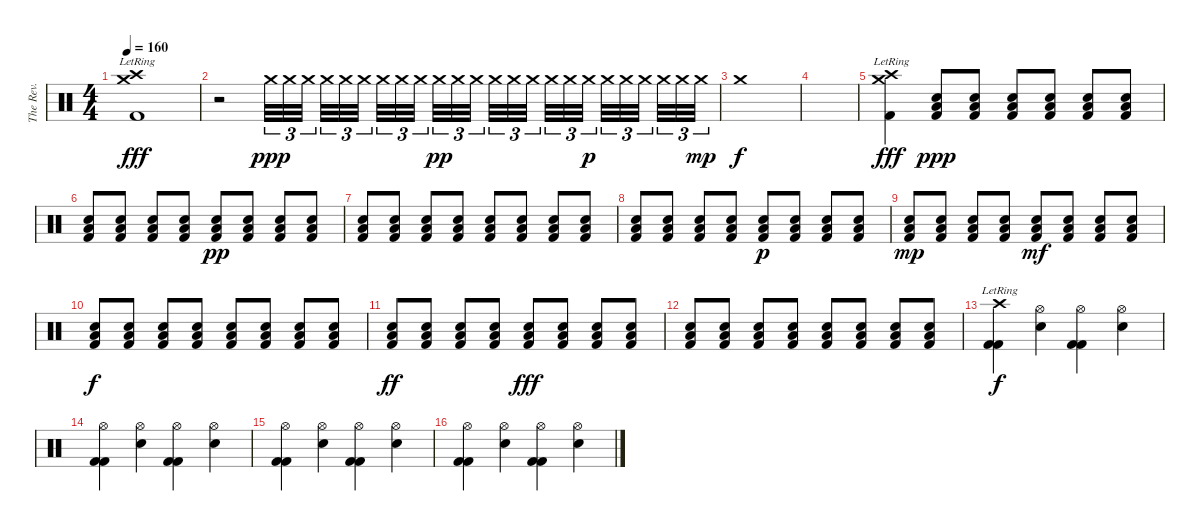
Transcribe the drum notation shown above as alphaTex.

\track ("The Rev." "The Rev.") {instrument percussion}
\staff {score}
\articulation defaults
\ts (4 4)
\tempo 160
\clef neutral
\ks c
("Kick (hit) 2" "Crash high (hit)"{lr} "Crash medium (hit)"{lr}).1{dy fff} |
r.2 "Crash medium (hit)".32{tu (3 2) dy ppp} "Crash medium (hit)".32{tu (3 2)} "Crash medium (hit)".32{tu (3 2) beam splitsecondary} "Crash medium (hit)".32{tu (3 2)} "Crash medium (hit)".32{tu (3 2)} "Crash medium (hit)".32{tu (3 2) beam splitsecondary} "Crash medium (hit)".32{tu (3 2)} "Crash medium (hit)".32{tu (3 2)} "Crash medium (hit)".32{tu (3 2) beam splitsecondary} "Crash medium (hit)".32{tu (3 2) dy pp} "Crash medium (hit)".32{tu (3 2)} "Crash medium (hit)".32{tu (3 2)} "Crash medium (hit)".32{tu (3 2)} "Crash medium (hit)".32{tu (3 2)} "Crash medium (hit)".32{tu (3 2) beam splitsecondary} "Crash medium (hit)".32{tu (3 2)} "Crash medium (hit)".32{tu (3 2)} "Crash medium (hit)".32{tu (3 2) dy p beam splitsecondary} "Crash medium (hit)".32{tu (3 2)} "Crash medium (hit)".32{tu (3 2)} "Crash medium (hit)".32{tu (3 2) beam splitsecondary} "Crash medium (hit)".32{tu (3 2)} "Crash medium (hit)".32{tu (3 2)} "Crash medium (hit)".32{tu (3 2) dy mp} |
"Crash medium (hit)".1{dy f} |
|
("Kick (hit) 2" "Crash high (hit)"{lr} "Crash medium (hit)"{lr}).4{dy fff} ("Low Tom (hit)" "Electric Snare (hit)" "Kick (hit) 2").8{dy ppp} ("Low Tom (hit)" "Electric Snare (hit)" "Kick (hit) 2").8 ("Low Tom (hit)" "Electric Snare (hit)" "Kick (hit) 2").8 ("Low Tom (hit)" "Electric Snare (hit)" "Kick (hit) 2").8 ("Low Tom (hit)" "Electric Snare (hit)" "Kick (hit) 2").8 ("Low Tom (hit)" "Electric Snare (hit)" "Kick (hit) 2").8 |
("Low Tom (hit)" "Electric Snare (hit)" "Kick (hit) 2").8 ("Low Tom (hit)" "Electric Snare (hit)" "Kick (hit) 2").8 ("Low Tom (hit)" "Electric Snare (hit)" "Kick (hit) 2").8 ("Low Tom (hit)" "Electric Snare (hit)" "Kick (hit) 2").8 ("Low Tom (hit)" "Electric Snare (hit)" "Kick (hit) 2").8{dy pp} ("Low Tom (hit)" "Electric Snare (hit)" "Kick (hit) 2").8 ("Low Tom (hit)" "Electric Snare (hit)" "Kick (hit) 2").8 ("Low Tom (hit)" "Electric Snare (hit)" "Kick (hit) 2").8 |
("Low Tom (hit)" "Electric Snare (hit)" "Kick (hit) 2").8 ("Low Tom (hit)" "Electric Snare (hit)" "Kick (hit) 2").8 ("Low Tom (hit)" "Electric Snare (hit)" "Kick (hit) 2").8 ("Low Tom (hit)" "Electric Snare (hit)" "Kick (hit) 2").8 ("Low Tom (hit)" "Electric Snare (hit)" "Kick (hit) 2").8 ("Low Tom (hit)" "Electric Snare (hit)" "Kick (hit) 2").8 ("Low Tom (hit)" "Electric Snare (hit)" "Kick (hit) 2").8 ("Low Tom (hit)" "Electric Snare (hit)" "Kick (hit) 2").8 |
("Low Tom (hit)" "Electric Snare (hit)" "Kick (hit) 2").8 ("Low Tom (hit)" "Electric Snare (hit)" "Kick (hit) 2").8 ("Low Tom (hit)" "Electric Snare (hit)" "Kick (hit) 2").8 ("Low Tom (hit)" "Electric Snare (hit)" "Kick (hit) 2").8 ("Low Tom (hit)" "Electric Snare (hit)" "Kick (hit) 2").8{dy p} ("Low Tom (hit)" "Electric Snare (hit)" "Kick (hit) 2").8 ("Low Tom (hit)" "Electric Snare (hit)" "Kick (hit) 2").8 ("Low Tom (hit)" "Electric Snare (hit)" "Kick (hit) 2").8 |
("Low Tom (hit)" "Electric Snare (hit)" "Kick (hit) 2").8{dy mp} ("Low Tom (hit)" "Electric Snare (hit)" "Kick (hit) 2").8 ("Low Tom (hit)" "Electric Snare (hit)" "Kick (hit) 2").8 ("Low Tom (hit)" "Electric Snare (hit)" "Kick (hit) 2").8 ("Low Tom (hit)" "Electric Snare (hit)" "Kick (hit) 2").8{dy mf} ("Low Tom (hit)" "Electric Snare (hit)" "Kick (hit) 2").8 ("Low Tom (hit)" "Electric Snare (hit)" "Kick (hit) 2").8 ("Low Tom (hit)" "Electric Snare (hit)" "Kick (hit) 2").8 |
("Low Tom (hit)" "Electric Snare (hit)" "Kick (hit) 2").8{dy f} ("Low Tom (hit)" "Electric Snare (hit)" "Kick (hit) 2").8 ("Low Tom (hit)" "Electric Snare (hit)" "Kick (hit) 2").8 ("Low Tom (hit)" "Electric Snare (hit)" "Kick (hit) 2").8 ("Low Tom (hit)" "Electric Snare (hit)" "Kick (hit) 2").8 ("Low Tom (hit)" "Electric Snare (hit)" "Kick (hit) 2").8 ("Low Tom (hit)" "Electric Snare (hit)" "Kick (hit) 2").8 ("Low Tom (hit)" "Electric Snare (hit)" "Kick (hit) 2").8 |
("Low Tom (hit)" "Electric Snare (hit)" "Kick (hit) 2").8{dy ff} ("Low Tom (hit)" "Electric Snare (hit)" "Kick (hit) 2").8 ("Low Tom (hit)" "Electric Snare (hit)" "Kick (hit) 2").8 ("Low Tom (hit)" "Electric Snare (hit)" "Kick (hit) 2").8 ("Low Tom (hit)" "Electric Snare (hit)" "Kick (hit) 2").8{dy fff} ("Low Tom (hit)" "Electric Snare (hit)" "Kick (hit) 2").8 ("Low Tom (hit)" "Electric Snare (hit)" "Kick (hit) 2").8 ("Low Tom (hit)" "Electric Snare (hit)" "Kick (hit) 2").8 |
("Low Tom (hit)" "Electric Snare (hit)" "Kick (hit) 2").8 ("Low Tom (hit)" "Electric Snare (hit)" "Kick (hit) 2").8 ("Low Tom (hit)" "Electric Snare (hit)" "Kick (hit) 2").8 ("Low Tom (hit)" "Electric Snare (hit)" "Kick (hit) 2").8 ("Low Tom (hit)" "Electric Snare (hit)" "Kick (hit) 2").8 ("Low Tom (hit)" "Electric Snare (hit)" "Kick (hit) 2").8 ("Low Tom (hit)" "Electric Snare (hit)" "Kick (hit) 2").8 ("Low Tom (hit)" "Electric Snare (hit)" "Kick (hit) 2").8 |
("Crash high (hit)" "Kick (hit) 2" "Kick (hit) 2"{lr}).4{dy f} ("Hi-Hat (open)" "Electric Snare (hit)").4 ("Hi-Hat (open)" "Kick (hit) 2" "Kick (hit) 2").4 ("Hi-Hat (open)" "Electric Snare (hit)").4 |
("Hi-Hat (open)" "Kick (hit) 2" "Kick (hit) 2").4 ("Hi-Hat (open)" "Electric Snare (hit)").4 ("Hi-Hat (open)" "Kick (hit) 2" "Kick (hit) 2").4 ("Hi-Hat (open)" "Electric Snare (hit)").4 |
("Hi-Hat (open)" "Kick (hit) 2" "Kick (hit) 2").4 ("Hi-Hat (open)" "Electric Snare (hit)").4 ("Hi-Hat (open)" "Kick (hit) 2" "Kick (hit) 2").4 ("Hi-Hat (open)" "Electric Snare (hit)").4 |
("Hi-Hat (open)" "Kick (hit) 2" "Kick (hit) 2").4 ("Hi-Hat (open)" "Electric Snare (hit)").4 ("Hi-Hat (open)" "Kick (hit) 2" "Kick (hit) 2").4 ("Hi-Hat (open)" "Electric Snare (hit)").4
